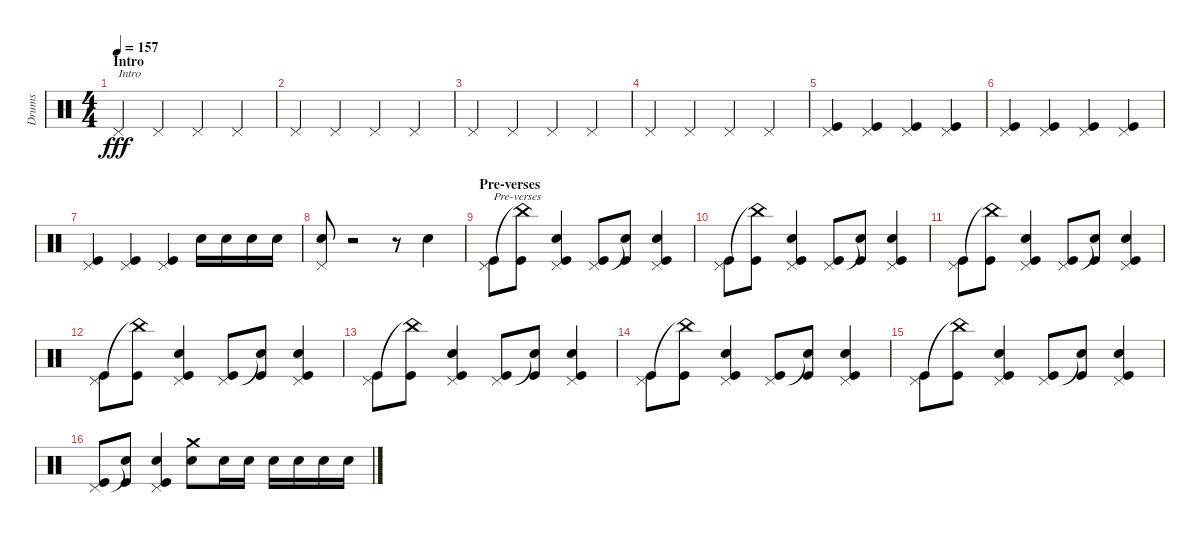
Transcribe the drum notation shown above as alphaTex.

\track ("Drums" "Drums") {instrument percussion}
\staff {score}
\articulation defaults
\ts (4 4)
\section ("" "Intro")
\tempo 157
\clef neutral
\ks c "Pedal Hi-Hat (hit)".4{txt "Intro" dy fff} "Pedal Hi-Hat (hit)".4 "Pedal Hi-Hat (hit)".4 "Pedal Hi-Hat (hit)".4
|
"Pedal Hi-Hat (hit)".4 "Pedal Hi-Hat (hit)".4 "Pedal Hi-Hat (hit)".4 "Pedal Hi-Hat (hit)".4 |
"Pedal Hi-Hat (hit)".4 "Pedal Hi-Hat (hit)".4 "Pedal Hi-Hat (hit)".4 "Pedal Hi-Hat (hit)".4 |
"Pedal Hi-Hat (hit)".4 "Pedal Hi-Hat (hit)".4 "Pedal Hi-Hat (hit)".4 "Pedal Hi-Hat (hit)".4 |
("Pedal Hi-Hat (hit)" "Kick (hit)").4 ("Pedal Hi-Hat (hit)" "Kick (hit)").4 ("Pedal Hi-Hat (hit)" "Kick (hit)").4 ("Pedal Hi-Hat (hit)" "Kick (hit)").4 |
("Pedal Hi-Hat (hit)" "Kick (hit)").4 ("Pedal Hi-Hat (hit)" "Kick (hit)").4 ("Pedal Hi-Hat (hit)" "Kick (hit)").4 ("Pedal Hi-Hat (hit)" "Kick (hit)").4 |
("Pedal Hi-Hat (hit)" "Kick (hit)").4 ("Pedal Hi-Hat (hit)" "Kick (hit)").4 ("Pedal Hi-Hat (hit)" "Kick (hit)").4 "Electric Snare (hit)".16 "Electric Snare (hit)".16 "Electric Snare (hit)".16 "Electric Snare (hit)".16 |
("Pedal Hi-Hat (hit)" "Electric Snare (hit)").8 r.2 r.8 "Electric Snare (hit)".4 |
\section ("" "Pre-verses")
("Pedal Hi-Hat (hit)" "Kick (hit)").8{txt "Pre-verses"} ("China (hit)"{t} "Kick (hit)").8 ("Pedal Hi-Hat (hit)" "Electric Snare (hit)" "Kick (hit)").4 ("Pedal Hi-Hat (hit)" "Kick (hit)").8 ("Snare (hit)"{t} "Kick (hit)").8 ("Pedal Hi-Hat (hit)" "Electric Snare (hit)" "Kick (hit)").4 |
("Pedal Hi-Hat (hit)" "Kick (hit)").8 ("China (hit)"{t} "Kick (hit)").8 ("Pedal Hi-Hat (hit)" "Electric Snare (hit)" "Kick (hit)").4 ("Pedal Hi-Hat (hit)" "Kick (hit)").8 ("Snare (hit)"{t} "Kick (hit)").8 ("Pedal Hi-Hat (hit)" "Electric Snare (hit)" "Kick (hit)").4 |
("Pedal Hi-Hat (hit)" "Kick (hit)").8 ("China (hit)"{t} "Kick (hit)").8 ("Pedal Hi-Hat (hit)" "Electric Snare (hit)" "Kick (hit)").4 ("Pedal Hi-Hat (hit)" "Kick (hit)").8 ("Snare (hit)"{t} "Kick (hit)").8 ("Pedal Hi-Hat (hit)" "Electric Snare (hit)" "Kick (hit)").4 |
("Pedal Hi-Hat (hit)" "Kick (hit)").8 ("China (hit)"{t} "Kick (hit)").8 ("Pedal Hi-Hat (hit)" "Electric Snare (hit)" "Kick (hit)").4 ("Pedal Hi-Hat (hit)" "Kick (hit)").8 ("Snare (hit)"{t} "Kick (hit)").8 ("Pedal Hi-Hat (hit)" "Electric Snare (hit)" "Kick (hit)").4 |
("Pedal Hi-Hat (hit)" "Kick (hit)").8 ("China (hit)"{t} "Kick (hit)").8 ("Pedal Hi-Hat (hit)" "Electric Snare (hit)" "Kick (hit)").4 ("Pedal Hi-Hat (hit)" "Kick (hit)").8 ("Snare (hit)"{t} "Kick (hit)").8 ("Pedal Hi-Hat (hit)" "Electric Snare (hit)" "Kick (hit)").4 |
("Pedal Hi-Hat (hit)" "Kick (hit)").8 ("China (hit)"{t} "Kick (hit)").8 ("Pedal Hi-Hat (hit)" "Electric Snare (hit)" "Kick (hit)").4 ("Pedal Hi-Hat (hit)" "Kick (hit)").8 ("Snare (hit)"{t} "Kick (hit)").8 ("Pedal Hi-Hat (hit)" "Electric Snare (hit)" "Kick (hit)").4 |
("Pedal Hi-Hat (hit)" "Kick (hit)").8 ("China (hit)"{t} "Kick (hit)").8 ("Pedal Hi-Hat (hit)" "Electric Snare (hit)" "Kick (hit)").4 ("Pedal Hi-Hat (hit)" "Kick (hit)").8 ("Snare (hit)"{t} "Kick (hit)").8 ("Pedal Hi-Hat (hit)" "Electric Snare (hit)" "Kick (hit)").4 |
("Pedal Hi-Hat (hit)" "Kick (hit)").8 ("Snare (hit)"{t} "Kick (hit)").8 ("Pedal Hi-Hat (hit)" "Electric Snare (hit)" "Kick (hit)").4 ("Crash medium (hit)" "Electric Snare (hit)").8 "Electric Snare (hit)".16 "Electric Snare (hit)".16 "Electric Snare (hit)".16 "Electric Snare (hit)".16 "Electric Snare (hit)".16 "Electric Snare (hit)".16
